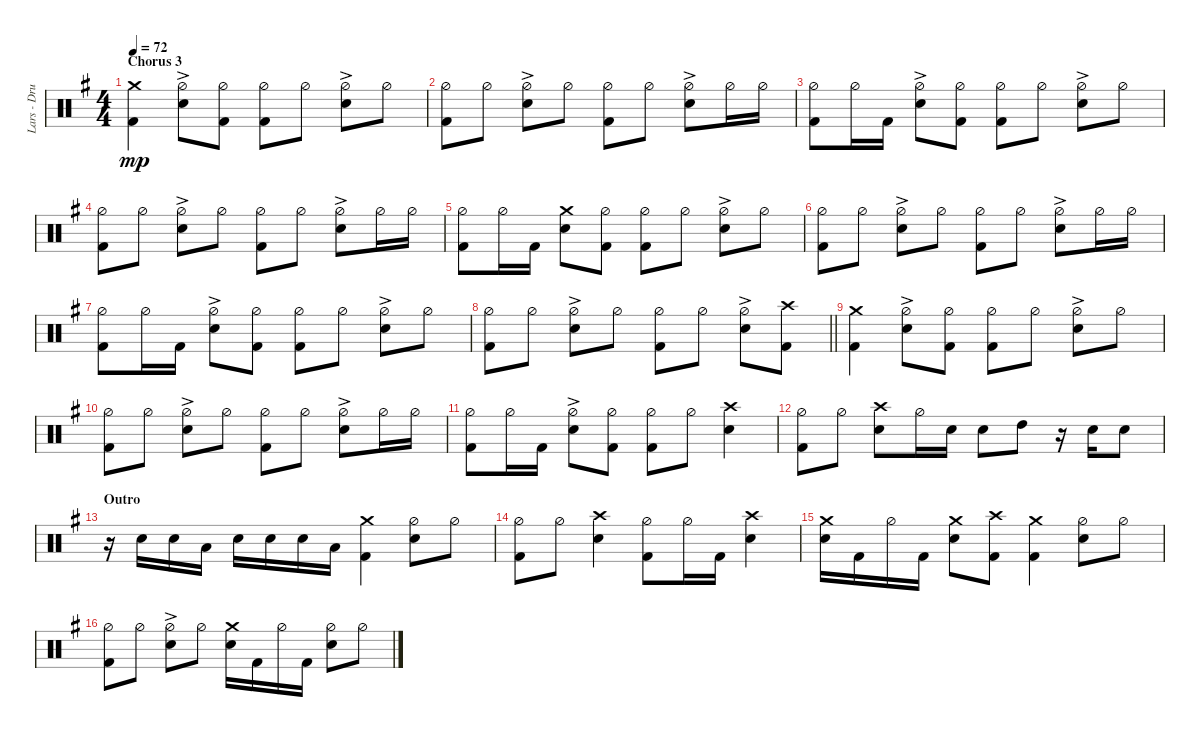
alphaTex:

\track ("Lars - Drums" "Lars - Dru") {instrument percussion}
\staff {score}
\articulation defaults
\ts (4 4)
\section ("" "Chorus 3")
\tempo 72
\clef neutral
\ks eminor
("Crash medium (hit)" "Kick (hit) 2").4{dy mp} ("Hi-Hat (half)"{ac} "Snare (hit) 2").8 ("Hi-Hat (half)" "Kick (hit) 2").8 ("Hi-Hat (half)" "Kick (hit) 2").8 "Hi-Hat (half)".8 ("Hi-Hat (half)"{ac} "Snare (hit) 2").8 "Hi-Hat (half)".8 |
("Hi-Hat (half)" "Kick (hit) 2").8 "Hi-Hat (half)".8 ("Hi-Hat (half)"{ac} "Snare (hit) 2").8 "Hi-Hat (half)".8 ("Hi-Hat (half)" "Kick (hit) 2").8 "Hi-Hat (half)".8 ("Hi-Hat (half)"{ac} "Snare (hit) 2").8 "Hi-Hat (half)".16 "Hi-Hat (half)".16 |
("Hi-Hat (half)" "Kick (hit) 2").8 "Hi-Hat (half)".16 "Kick (hit) 2".16 ("Hi-Hat (half)"{ac} "Snare (hit) 2").8 ("Hi-Hat (half)" "Kick (hit) 2").8 ("Hi-Hat (half)" "Kick (hit) 2").8 "Hi-Hat (half)".8 ("Hi-Hat (half)"{ac} "Snare (hit) 2").8 "Hi-Hat (half)".8 |
("Hi-Hat (half)" "Kick (hit) 2").8 "Hi-Hat (half)".8 ("Hi-Hat (half)"{ac} "Snare (hit) 2").8 "Hi-Hat (half)".8 ("Hi-Hat (half)" "Kick (hit) 2").8 "Hi-Hat (half)".8 ("Hi-Hat (half)"{ac} "Snare (hit) 2").8 "Hi-Hat (half)".16 "Hi-Hat (half)".16 |
("Hi-Hat (half)" "Kick (hit) 2").8 "Hi-Hat (half)".16 "Kick (hit) 2".16 ("Crash medium (hit)" "Snare (hit) 2").8 ("Hi-Hat (half)" "Kick (hit) 2").8 ("Hi-Hat (half)" "Kick (hit) 2").8 "Hi-Hat (half)".8 ("Hi-Hat (half)"{ac} "Snare (hit) 2").8 "Hi-Hat (half)".8 |
("Hi-Hat (half)" "Kick (hit) 2").8 "Hi-Hat (half)".8 ("Hi-Hat (half)"{ac} "Snare (hit) 2").8 "Hi-Hat (half)".8 ("Hi-Hat (half)" "Kick (hit) 2").8 "Hi-Hat (half)".8 ("Hi-Hat (half)"{ac} "Snare (hit) 2").8 "Hi-Hat (half)".16 "Hi-Hat (half)".16 |
("Hi-Hat (half)" "Kick (hit) 2").8 "Hi-Hat (half)".16 "Kick (hit) 2".16 ("Snare (hit) 2"{ac} "Hi-Hat (half)").8 ("Hi-Hat (half)" "Kick (hit) 2").8 ("Hi-Hat (half)" "Kick (hit) 2").8 "Hi-Hat (half)".8 ("Hi-Hat (half)"{ac} "Snare (hit) 2").8 "Hi-Hat (half)".8 |
\barLineRight lightlight
("Hi-Hat (half)" "Kick (hit) 2").8 "Hi-Hat (half)".8 ("Hi-Hat (half)"{ac} "Snare (hit) 2").8 "Hi-Hat (half)".8 ("Hi-Hat (half)" "Kick (hit) 2").8 "Hi-Hat (half)".8 ("Hi-Hat (half)"{ac} "Snare (hit) 2").8 ("Kick (hit) 2" "Crash high (hit)").8 |
("Crash medium (hit)" "Kick (hit) 2").4 ("Hi-Hat (half)"{ac} "Snare (hit) 2").8 ("Hi-Hat (half)" "Kick (hit) 2").8 ("Hi-Hat (half)" "Kick (hit) 2").8 "Hi-Hat (half)".8 ("Hi-Hat (half)"{ac} "Snare (hit) 2").8 "Hi-Hat (half)".8 |
("Hi-Hat (half)" "Kick (hit) 2").8 "Hi-Hat (half)".8 ("Hi-Hat (half)"{ac} "Snare (hit) 2").8 "Hi-Hat (half)".8 ("Hi-Hat (half)" "Kick (hit) 2").8 "Hi-Hat (half)".8 ("Hi-Hat (half)"{ac} "Snare (hit) 2").8 "Hi-Hat (half)".16 "Hi-Hat (half)".16 |
("Hi-Hat (half)" "Kick (hit) 2").8 "Hi-Hat (half)".16 "Kick (hit) 2".16 ("Hi-Hat (half)"{ac} "Snare (hit) 2").8 ("Hi-Hat (half)" "Kick (hit) 2").8 ("Hi-Hat (half)" "Kick (hit) 2").8 "Hi-Hat (half)".8 ("Snare (hit) 2" "Crash high (hit)").4 |
("Hi-Hat (half)" "Kick (hit) 2").8 "Hi-Hat (half)".8 ("Snare (hit) 2" "Crash high (hit)").8 "Hi-Hat (half)".16 "Snare (hit) 2".16 "Snare (hit) 2".8 "High Tom (hit)".8 r.16 "Snare (hit) 2".16 "Snare (hit) 2".8 |
\section ("" "Outro")
r.16 "Snare (hit) 2".16 "Snare (hit) 2".16 "Low Tom (hit)".16 "Snare (hit) 2".16 "Snare (hit) 2".16 "Snare (hit) 2".16 "Low Tom (hit)".16 ("Kick (hit) 2" "Crash medium (hit)").4 ("Snare (hit) 2" "Hi-Hat (half)").8 "Hi-Hat (half)".8 |
("Hi-Hat (half)" "Kick (hit) 2").8 "Hi-Hat (half)".8 ("Snare (hit) 2" "Crash high (hit)").4 ("Hi-Hat (half)" "Kick (hit) 2").8 "Hi-Hat (half)".16 "Kick (hit) 2".16 ("Snare (hit) 2" "Crash high (hit)").4 |
("Crash medium (hit)" "Snare (hit) 2").16 "Kick (hit) 2".16 "Hi-Hat (half)".16 "Kick (hit) 2".16 ("Snare (hit) 2" "Crash medium (hit)").8 ("Crash high (hit)" "Kick (hit) 2").8 ("Kick (hit) 2" "Crash medium (hit)").4 ("Snare (hit) 2" "Hi-Hat (half)").8 "Hi-Hat (half)".8 |
("Hi-Hat (half)" "Kick (hit) 2").8 "Hi-Hat (half)".8 ("Hi-Hat (half)"{ac} "Snare (hit) 2").8 "Hi-Hat (half)".8 ("Crash medium (hit)" "Snare (hit) 2").16 "Kick (hit) 2".16 "Hi-Hat (half)".16 "Kick (hit) 2".16 ("Snare (hit) 2" "Hi-Hat (half)").8 "Hi-Hat (half)".8
